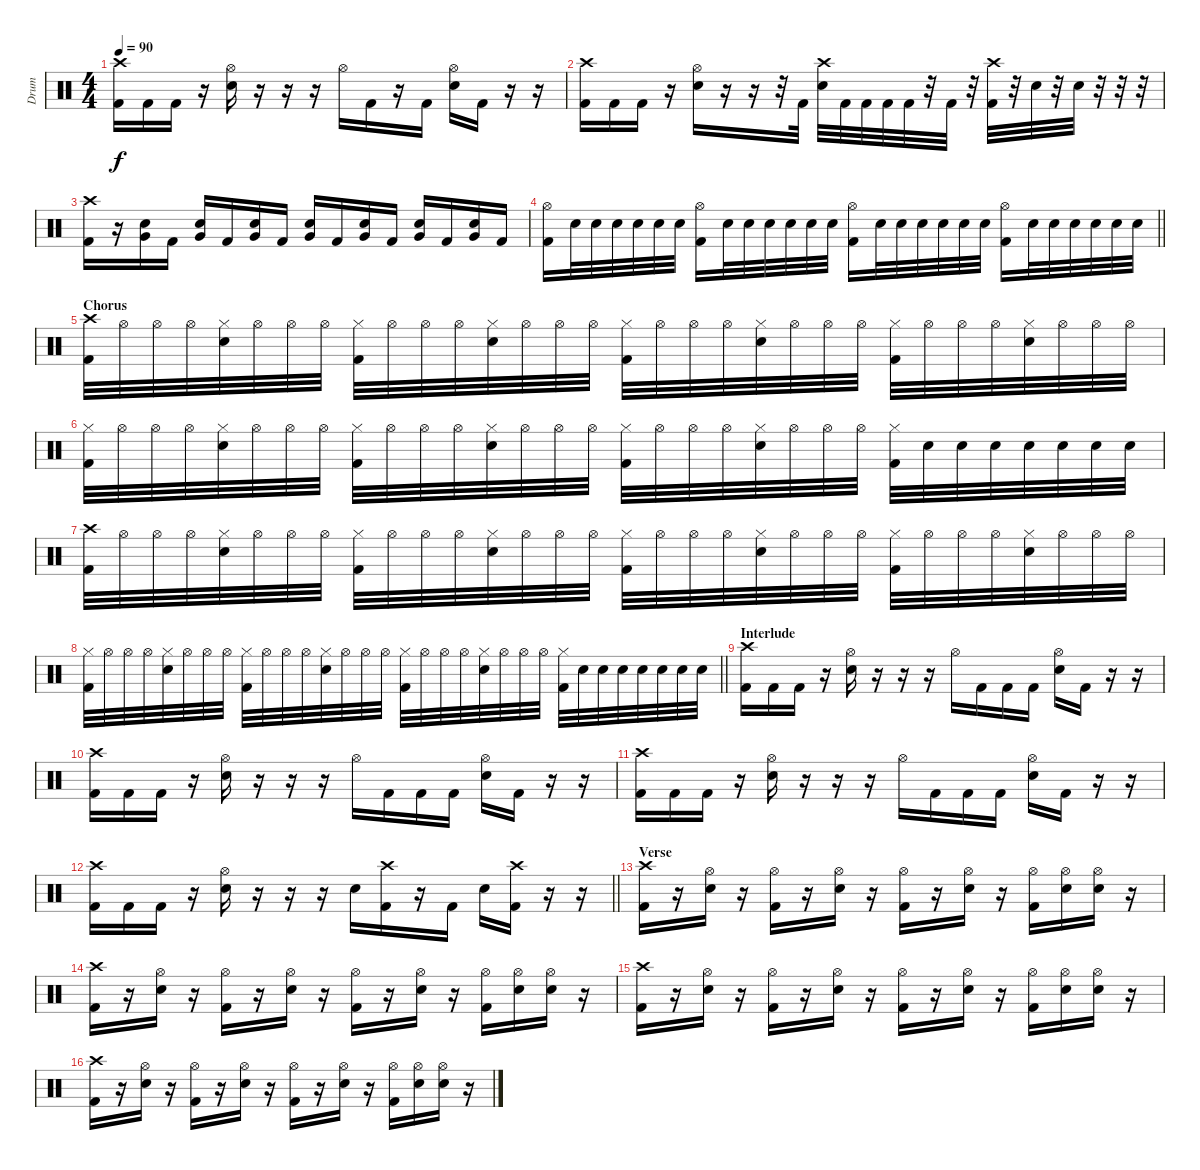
\track ("Drum" "Drum") {instrument percussion}
\staff {score}
\articulation defaults
\ts (4 4)
\tempo 90
\clef neutral
\ks c
("Crash high (hit)" "Kick (hit) 2").16{dy f volume 13} "Kick (hit) 2".16 "Kick (hit) 2".16 r.16 ("Hi-Hat (open)" "Electric Snare (hit)").16 r.16 r.16 r.16 "Hi-Hat (open)".16 "Kick (hit) 2".16 r.16 "Kick (hit) 2".16 ("Hi-Hat (open)" "Electric Snare (hit)").16 "Kick (hit) 2".16 r.16 r.16 |
("Crash high (hit)" "Kick (hit) 2").16 "Kick (hit) 2".16 "Kick (hit) 2".16 r.16 ("Hi-Hat (open)" "Electric Snare (hit)").16 r.16 r.16 r.32 "Kick (hit) 2".32 ("Crash high (hit)" "Electric Snare (hit)").32{volume 9} "Kick (hit) 2".32 "Kick (hit) 2".32 "Kick (hit) 2".32 "Kick (hit) 2".32 r.32 "Kick (hit) 2".32 r.32 ("Crash high (hit)" "Kick (hit) 2").32 r.32 "Electric Snare (hit)".32 r.32 "Electric Snare (hit)".32 r.32 r.32 r.32 |
("Crash high (hit)" "Kick (hit) 2").16{volume 13} r.16 ("Electric Snare (hit)" "Very Low Tom (hit)").16 "Kick (hit) 2".16 ("Electric Snare (hit)" "Very Low Tom (hit)").16 "Kick (hit) 2".16 ("Electric Snare (hit)" "Very Low Tom (hit)").16 "Kick (hit) 2".16 ("Electric Snare (hit)" "Very Low Tom (hit)").16 "Kick (hit) 2".16 ("Electric Snare (hit)" "Very Low Tom (hit)").16 "Kick (hit) 2".16 ("Electric Snare (hit)" "Very Low Tom (hit)").16 "Kick (hit) 2".16 ("Electric Snare (hit)" "Very Low Tom (hit)").16 "Kick (hit) 2".16 |
\barLineRight lightlight
("Hi-Hat (open)" "Kick (hit) 2").16 "Electric Snare (hit)".32 "Electric Snare (hit)".32 "Electric Snare (hit)".32 "Electric Snare (hit)".32 "Electric Snare (hit)".32 "Electric Snare (hit)".32 ("Hi-Hat (open)" "Kick (hit) 2").16 "Electric Snare (hit)".32 "Electric Snare (hit)".32 "Electric Snare (hit)".32 "Electric Snare (hit)".32 "Electric Snare (hit)".32 "Electric Snare (hit)".32 ("Hi-Hat (open)" "Kick (hit) 2").16 "Electric Snare (hit)".32 "Electric Snare (hit)".32 "Electric Snare (hit)".32 "Electric Snare (hit)".32 "Electric Snare (hit)".32 "Electric Snare (hit)".32 ("Hi-Hat (open)" "Kick (hit) 2").16 "Electric Snare (hit)".32 "Electric Snare (hit)".32 "Electric Snare (hit)".32 "Electric Snare (hit)".32 "Electric Snare (hit)".32 "Electric Snare (hit)".32 |
\section ("" "Chorus")
("Crash high (hit)" "Kick (hit) 2").32 "Hi-Hat (open)".32 "Hi-Hat (open)".32 "Hi-Hat (open)".32 ("Hi-Hat (closed)" "Electric Snare (hit)").32 "Hi-Hat (open)".32 "Hi-Hat (open)".32 "Hi-Hat (open)".32 ("Hi-Hat (closed)" "Kick (hit) 2").32 "Hi-Hat (open)".32 "Hi-Hat (open)".32 "Hi-Hat (open)".32 ("Hi-Hat (closed)" "Electric Snare (hit)").32 "Hi-Hat (open)".32 "Hi-Hat (open)".32 "Hi-Hat (open)".32 ("Hi-Hat (closed)" "Kick (hit) 2").32 "Hi-Hat (open)".32 "Hi-Hat (open)".32 "Hi-Hat (open)".32 ("Hi-Hat (closed)" "Electric Snare (hit)").32 "Hi-Hat (open)".32 "Hi-Hat (open)".32 "Hi-Hat (open)".32 ("Hi-Hat (closed)" "Kick (hit) 2").32 "Hi-Hat (open)".32 "Hi-Hat (open)".32 "Hi-Hat (open)".32 ("Hi-Hat (closed)" "Electric Snare (hit)").32 "Hi-Hat (open)".32 "Hi-Hat (open)".32 "Hi-Hat (open)".32 |
("Hi-Hat (closed)" "Kick (hit) 2").32 "Hi-Hat (open)".32 "Hi-Hat (open)".32 "Hi-Hat (open)".32 ("Hi-Hat (closed)" "Electric Snare (hit)").32 "Hi-Hat (open)".32 "Hi-Hat (open)".32 "Hi-Hat (open)".32 ("Hi-Hat (closed)" "Kick (hit) 2").32 "Hi-Hat (open)".32 "Hi-Hat (open)".32 "Hi-Hat (open)".32 ("Hi-Hat (closed)" "Electric Snare (hit)").32 "Hi-Hat (open)".32 "Hi-Hat (open)".32 "Hi-Hat (open)".32 ("Hi-Hat (closed)" "Kick (hit) 2").32 "Hi-Hat (open)".32 "Hi-Hat (open)".32 "Hi-Hat (open)".32 ("Hi-Hat (closed)" "Electric Snare (hit)").32 "Hi-Hat (open)".32 "Hi-Hat (open)".32 "Hi-Hat (open)".32 ("Hi-Hat (closed)" "Kick (hit) 2").32 "Electric Snare (hit)".32 "Electric Snare (hit)".32 "Electric Snare (hit)".32 "Electric Snare (hit)".32 "Electric Snare (hit)".32 "Electric Snare (hit)".32 "Electric Snare (hit)".32 |
("Crash high (hit)" "Kick (hit) 2").32 "Hi-Hat (open)".32 "Hi-Hat (open)".32 "Hi-Hat (open)".32 ("Hi-Hat (closed)" "Electric Snare (hit)").32 "Hi-Hat (open)".32 "Hi-Hat (open)".32 "Hi-Hat (open)".32 ("Hi-Hat (closed)" "Kick (hit) 2").32 "Hi-Hat (open)".32 "Hi-Hat (open)".32 "Hi-Hat (open)".32 ("Hi-Hat (closed)" "Electric Snare (hit)").32 "Hi-Hat (open)".32 "Hi-Hat (open)".32 "Hi-Hat (open)".32 ("Hi-Hat (closed)" "Kick (hit) 2").32 "Hi-Hat (open)".32 "Hi-Hat (open)".32 "Hi-Hat (open)".32 ("Hi-Hat (closed)" "Electric Snare (hit)").32 "Hi-Hat (open)".32 "Hi-Hat (open)".32 "Hi-Hat (open)".32 ("Hi-Hat (closed)" "Kick (hit) 2").32 "Hi-Hat (open)".32 "Hi-Hat (open)".32 "Hi-Hat (open)".32 ("Hi-Hat (closed)" "Electric Snare (hit)").32 "Hi-Hat (open)".32 "Hi-Hat (open)".32 "Hi-Hat (open)".32 |
\barLineRight lightlight
("Hi-Hat (closed)" "Kick (hit) 2").32 "Hi-Hat (open)".32 "Hi-Hat (open)".32 "Hi-Hat (open)".32 ("Hi-Hat (closed)" "Electric Snare (hit)").32 "Hi-Hat (open)".32 "Hi-Hat (open)".32 "Hi-Hat (open)".32 ("Hi-Hat (closed)" "Kick (hit) 2").32 "Hi-Hat (open)".32 "Hi-Hat (open)".32 "Hi-Hat (open)".32 ("Hi-Hat (closed)" "Electric Snare (hit)").32 "Hi-Hat (open)".32 "Hi-Hat (open)".32 "Hi-Hat (open)".32 ("Hi-Hat (closed)" "Kick (hit) 2").32 "Hi-Hat (open)".32 "Hi-Hat (open)".32 "Hi-Hat (open)".32 ("Hi-Hat (closed)" "Electric Snare (hit)").32 "Hi-Hat (open)".32 "Hi-Hat (open)".32 "Hi-Hat (open)".32 ("Hi-Hat (closed)" "Kick (hit) 2").32 "Electric Snare (hit)".32 "Electric Snare (hit)".32 "Electric Snare (hit)".32 "Electric Snare (hit)".32 "Electric Snare (hit)".32 "Electric Snare (hit)".32 "Electric Snare (hit)".32 |
\section ("" "Interlude")
("Crash high (hit)" "Kick (hit) 2").16 "Kick (hit) 2".16 "Kick (hit) 2".16 r.16 ("Hi-Hat (open)" "Electric Snare (hit)").16 r.16 r.16 r.16 "Hi-Hat (open)".16 "Kick (hit) 2".16 "Kick (hit) 2".16 "Kick (hit) 2".16 ("Hi-Hat (open)" "Electric Snare (hit)").16 "Kick (hit) 2".16 r.16 r.16 |
("Crash high (hit)" "Kick (hit) 2").16 "Kick (hit) 2".16 "Kick (hit) 2".16 r.16 ("Hi-Hat (open)" "Electric Snare (hit)").16 r.16 r.16 r.16 "Hi-Hat (open)".16 "Kick (hit) 2".16 "Kick (hit) 2".16 "Kick (hit) 2".16 ("Hi-Hat (open)" "Electric Snare (hit)").16 "Kick (hit) 2".16 r.16 r.16 |
("Crash high (hit)" "Kick (hit) 2").16 "Kick (hit) 2".16 "Kick (hit) 2".16 r.16 ("Hi-Hat (open)" "Electric Snare (hit)").16 r.16 r.16 r.16 "Hi-Hat (open)".16 "Kick (hit) 2".16 "Kick (hit) 2".16 "Kick (hit) 2".16 ("Hi-Hat (open)" "Electric Snare (hit)").16 "Kick (hit) 2".16 r.16 r.16 |
\barLineRight lightlight
("Crash high (hit)" "Kick (hit) 2").16 "Kick (hit) 2".16 "Kick (hit) 2".16 r.16 ("Hi-Hat (open)" "Electric Snare (hit)").16 r.16 r.16 r.16 "Electric Snare (hit)".16 ("Crash high (hit)" "Kick (hit) 2").16 r.16 "Kick (hit) 2".16 "Electric Snare (hit)".16 ("Crash high (hit)" "Kick (hit) 2").16 r.16 r.16 |
\section ("" "Verse")
("Crash high (hit)" "Kick (hit) 2").16 r.16 ("Hi-Hat (open)" "Electric Snare (hit)").16 r.16 ("Hi-Hat (open)" "Kick (hit) 2").16 r.16 ("Hi-Hat (open)" "Electric Snare (hit)").16 r.16 ("Hi-Hat (open)" "Kick (hit) 2").16 r.16 ("Hi-Hat (open)" "Electric Snare (hit)").16 r.16 ("Hi-Hat (open)" "Kick (hit) 2").16 ("Hi-Hat (open)" "Electric Snare (hit)").16 ("Hi-Hat (open)" "Electric Snare (hit)").16 r.16 |
("Crash high (hit)" "Kick (hit) 2").16 r.16 ("Hi-Hat (open)" "Electric Snare (hit)").16 r.16 ("Hi-Hat (open)" "Kick (hit) 2").16 r.16 ("Hi-Hat (open)" "Electric Snare (hit)").16 r.16 ("Hi-Hat (open)" "Kick (hit) 2").16 r.16 ("Hi-Hat (open)" "Electric Snare (hit)").16 r.16 ("Hi-Hat (open)" "Kick (hit) 2").16 ("Hi-Hat (open)" "Electric Snare (hit)").16 ("Hi-Hat (open)" "Electric Snare (hit)").16 r.16 |
("Crash high (hit)" "Kick (hit) 2").16 r.16 ("Hi-Hat (open)" "Electric Snare (hit)").16 r.16 ("Hi-Hat (open)" "Kick (hit) 2").16 r.16 ("Hi-Hat (open)" "Electric Snare (hit)").16 r.16 ("Hi-Hat (open)" "Kick (hit) 2").16 r.16 ("Hi-Hat (open)" "Electric Snare (hit)").16 r.16 ("Hi-Hat (open)" "Kick (hit) 2").16 ("Hi-Hat (open)" "Electric Snare (hit)").16 ("Hi-Hat (open)" "Electric Snare (hit)").16 r.16 |
("Crash high (hit)" "Kick (hit) 2").16 r.16 ("Hi-Hat (open)" "Electric Snare (hit)").16 r.16 ("Hi-Hat (open)" "Kick (hit) 2").16 r.16 ("Hi-Hat (open)" "Electric Snare (hit)").16 r.16 ("Hi-Hat (open)" "Kick (hit) 2").16 r.16 ("Hi-Hat (open)" "Electric Snare (hit)").16 r.16 ("Hi-Hat (open)" "Kick (hit) 2").16 ("Hi-Hat (open)" "Electric Snare (hit)").16 ("Hi-Hat (open)" "Electric Snare (hit)").16 r.16
